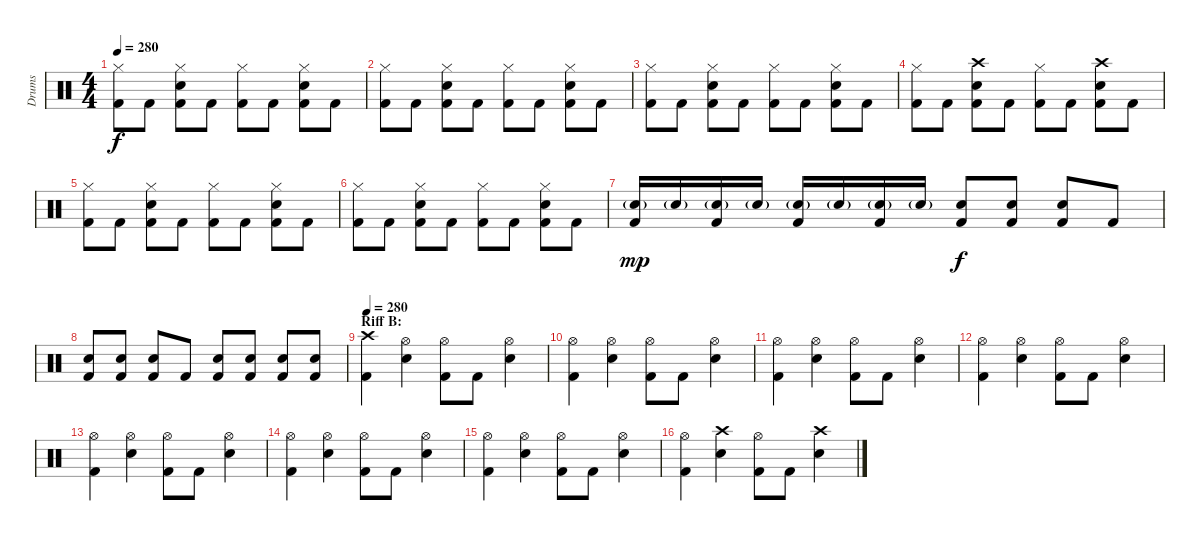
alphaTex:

\track ("Drums" "Drums") {instrument percussion}
\staff {score}
\articulation defaults
\ts (4 4)
\tempo 280
\clef neutral
\ks c
("Hi-Hat (closed)" "Kick (hit) 2").8{dy f} "Kick (hit) 2".8 ("Hi-Hat (closed)" "Snare (hit) 2" "Kick (hit) 2").8 "Kick (hit) 2".8 ("Hi-Hat (closed)" "Kick (hit) 2").8 "Kick (hit) 2".8 ("Hi-Hat (closed)" "Snare (hit) 2" "Kick (hit) 2").8 "Kick (hit) 2".8 |
("Hi-Hat (closed)" "Kick (hit) 2").8 "Kick (hit) 2".8 ("Hi-Hat (closed)" "Snare (hit) 2" "Kick (hit) 2").8 "Kick (hit) 2".8 ("Hi-Hat (closed)" "Kick (hit) 2").8 "Kick (hit) 2".8 ("Hi-Hat (closed)" "Snare (hit) 2" "Kick (hit) 2").8 "Kick (hit) 2".8 |
("Hi-Hat (closed)" "Kick (hit) 2").8 "Kick (hit) 2".8 ("Hi-Hat (closed)" "Snare (hit) 2" "Kick (hit) 2").8 "Kick (hit) 2".8 ("Hi-Hat (closed)" "Kick (hit) 2").8 "Kick (hit) 2".8 ("Hi-Hat (closed)" "Snare (hit) 2" "Kick (hit) 2").8 "Kick (hit) 2".8 |
("Hi-Hat (closed)" "Kick (hit) 2").8 "Kick (hit) 2".8 ("Crash high (hit)" "Snare (hit) 2" "Kick (hit) 2").8 "Kick (hit) 2".8 ("Hi-Hat (closed)" "Kick (hit) 2").8 "Kick (hit) 2".8 ("Crash high (hit)" "Snare (hit) 2" "Kick (hit) 2").8 "Kick (hit) 2".8 |
("Hi-Hat (closed)" "Kick (hit) 2").8 "Kick (hit) 2".8 ("Hi-Hat (closed)" "Snare (hit) 2" "Kick (hit) 2").8 "Kick (hit) 2".8 ("Hi-Hat (closed)" "Kick (hit) 2").8 "Kick (hit) 2".8 ("Hi-Hat (closed)" "Snare (hit) 2" "Kick (hit) 2").8 "Kick (hit) 2".8 |
("Hi-Hat (closed)" "Kick (hit) 2").8 "Kick (hit) 2".8 ("Hi-Hat (closed)" "Snare (hit) 2" "Kick (hit) 2").8 "Kick (hit) 2".8 ("Hi-Hat (closed)" "Kick (hit) 2").8 "Kick (hit) 2".8 ("Hi-Hat (closed)" "Snare (hit) 2" "Kick (hit) 2").8 "Kick (hit) 2".8 |
("Snare (hit) 2"{g} "Kick (hit) 2").16{dy mp} "Snare (hit) 2"{g}.16 ("Snare (hit) 2"{g} "Kick (hit) 2").16 "Snare (hit) 2"{g}.16 ("Snare (hit) 2"{g} "Kick (hit) 2").16 "Snare (hit) 2"{g}.16 ("Snare (hit) 2"{g} "Kick (hit) 2").16 "Snare (hit) 2"{g}.16 ("Snare (hit) 2" "Kick (hit) 2").8{dy f} ("Snare (hit) 2" "Kick (hit) 2").8 ("Snare (hit) 2" "Kick (hit) 2").8 "Kick (hit) 2".8 |
("Snare (hit) 2" "Kick (hit) 2").8 ("Snare (hit) 2" "Kick (hit) 2").8 ("Snare (hit) 2" "Kick (hit) 2").8 "Kick (hit) 2".8 ("Snare (hit) 2" "Kick (hit) 2").8 ("Snare (hit) 2" "Kick (hit) 2").8 ("Snare (hit) 2" "Kick (hit) 2").8 ("Snare (hit) 2" "Kick (hit) 2").8 |
\section ("" "Riff B:")
\tempo 280
("Crash high (hit)" "Kick (hit) 2").4 ("Hi-Hat (open)" "Snare (hit) 2").4 ("Hi-Hat (open)" "Kick (hit) 2").8 "Kick (hit) 2".8 ("Hi-Hat (open)" "Snare (hit) 2").4 |
("Hi-Hat (open)" "Kick (hit) 2").4 ("Hi-Hat (open)" "Snare (hit) 2").4 ("Hi-Hat (open)" "Kick (hit) 2").8 "Kick (hit) 2".8 ("Hi-Hat (open)" "Snare (hit) 2").4 |
("Hi-Hat (open)" "Kick (hit) 2").4 ("Hi-Hat (open)" "Snare (hit) 2").4 ("Hi-Hat (open)" "Kick (hit) 2").8 "Kick (hit) 2".8 ("Hi-Hat (open)" "Snare (hit) 2").4 |
("Hi-Hat (open)" "Kick (hit) 2").4 ("Hi-Hat (open)" "Snare (hit) 2").4 ("Hi-Hat (open)" "Kick (hit) 2").8 "Kick (hit) 2".8 ("Hi-Hat (open)" "Snare (hit) 2").4 |
("Hi-Hat (open)" "Kick (hit) 2").4 ("Hi-Hat (open)" "Snare (hit) 2").4 ("Hi-Hat (open)" "Kick (hit) 2").8 "Kick (hit) 2".8 ("Hi-Hat (open)" "Snare (hit) 2").4 |
("Hi-Hat (open)" "Kick (hit) 2").4 ("Hi-Hat (open)" "Snare (hit) 2").4 ("Hi-Hat (open)" "Kick (hit) 2").8 "Kick (hit) 2".8 ("Hi-Hat (open)" "Snare (hit) 2").4 |
("Hi-Hat (open)" "Kick (hit) 2").4 ("Hi-Hat (open)" "Snare (hit) 2").4 ("Hi-Hat (open)" "Kick (hit) 2").8 "Kick (hit) 2".8 ("Hi-Hat (open)" "Snare (hit) 2").4 |
("Hi-Hat (open)" "Kick (hit) 2").4 ("Crash high (hit)" "Snare (hit) 2").4 ("Hi-Hat (open)" "Kick (hit) 2").8 "Kick (hit) 2".8 ("Crash high (hit)" "Snare (hit) 2").4
